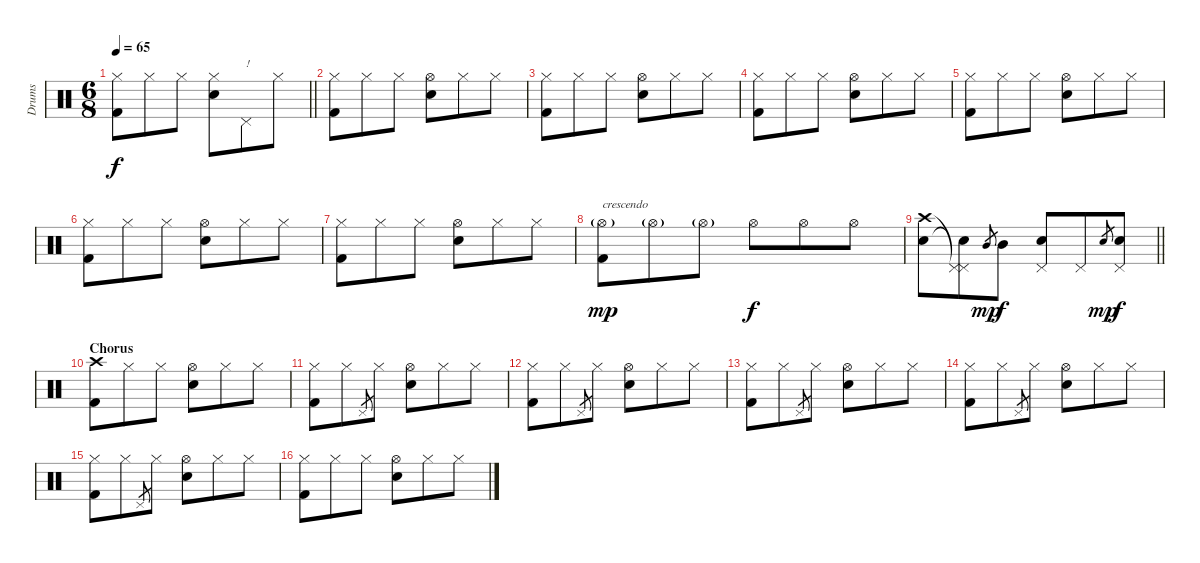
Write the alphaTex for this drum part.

\track ("Drums" "Drums") {instrument percussion}
\staff {score}
\articulation defaults
\ts (6 8)
\tempo 65
\clef neutral
\barLineRight lightlight
\ks c
("Hi-Hat (closed)" "Kick (hit) 2").8{dy f} "Hi-Hat (closed)".8 "Hi-Hat (closed)".8 ("Hi-Hat (closed)" "Snare (hit) 2").8 "Pedal Hi-Hat (hit)".8{txt "!"} "Hi-Hat (closed)".8 |
\section ("" "")
("Hi-Hat (closed)" "Kick (hit) 2").8 "Hi-Hat (closed)".8 "Hi-Hat (closed)".8 ("Hi-Hat (open)" "Snare (hit) 2").8 "Hi-Hat (closed)".8 "Hi-Hat (closed)".8 |
("Hi-Hat (closed)" "Kick (hit) 2").8 "Hi-Hat (closed)".8 "Hi-Hat (closed)".8 ("Hi-Hat (open)" "Snare (hit) 2").8 "Hi-Hat (closed)".8 "Hi-Hat (closed)".8 |
("Hi-Hat (closed)" "Kick (hit) 2").8 "Hi-Hat (closed)".8 "Hi-Hat (closed)".8 ("Hi-Hat (open)" "Snare (hit) 2").8 "Hi-Hat (closed)".8 "Hi-Hat (closed)".8 |
("Hi-Hat (closed)" "Kick (hit) 2").8 "Hi-Hat (closed)".8 "Hi-Hat (closed)".8 ("Hi-Hat (open)" "Snare (hit) 2").8 "Hi-Hat (closed)".8 "Hi-Hat (closed)".8 |
("Hi-Hat (closed)" "Kick (hit) 2").8 "Hi-Hat (closed)".8 "Hi-Hat (closed)".8 ("Hi-Hat (open)" "Snare (hit) 2").8 "Hi-Hat (closed)".8 "Hi-Hat (closed)".8 |
("Hi-Hat (closed)" "Kick (hit) 2").8 "Hi-Hat (closed)".8 "Hi-Hat (closed)".8 ("Hi-Hat (open)" "Snare (hit) 2").8 "Hi-Hat (closed)".8 "Hi-Hat (closed)".8 |
("Hi-Hat (open)"{g} "Kick (hit) 2").8{txt "crescendo" dy mp} "Hi-Hat (open)"{g}.8 "Hi-Hat (open)"{g}.8 "Hi-Hat (open)".8{dy f} "Hi-Hat (open)".8 "Hi-Hat (open)".8 |
\barLineRight lightlight
("Crash high (hit)" "Snare (hit) 2").8 ("Pedal Hi-Hat (hit)"{t} "Snare (hit)"{t} "Pedal Hi-Hat (hit)").8 "Mid Tom (hit)".8{gr dy mp} "Mid Tom (hit)".8{dy f} ("Snare (hit) 2" "Pedal Hi-Hat (hit)").8 "Pedal Hi-Hat (hit)".8 "Snare (hit) 2".8{gr dy mp} ("Snare (hit) 2" "Pedal Hi-Hat (hit)").8{dy f} |
\section ("" "Chorus")
("Crash high (hit)" "Kick (hit) 2").8 "Hi-Hat (closed)".8 "Hi-Hat (closed)".8 ("Hi-Hat (open)" "Snare (hit) 2").8 "Hi-Hat (closed)".8 "Hi-Hat (closed)".8 |
("Hi-Hat (closed)" "Kick (hit) 2").8 "Hi-Hat (closed)".8 "Pedal Hi-Hat (hit)".8{gr} "Hi-Hat (closed)".8 ("Hi-Hat (open)" "Snare (hit) 2").8 "Hi-Hat (closed)".8 "Hi-Hat (closed)".8 |
("Hi-Hat (closed)" "Kick (hit) 2").8 "Hi-Hat (closed)".8 "Pedal Hi-Hat (hit)".8{gr} "Hi-Hat (closed)".8 ("Hi-Hat (open)" "Snare (hit) 2").8 "Hi-Hat (closed)".8 "Hi-Hat (closed)".8 |
("Hi-Hat (closed)" "Kick (hit) 2").8 "Hi-Hat (closed)".8 "Pedal Hi-Hat (hit)".8{gr} "Hi-Hat (closed)".8 ("Hi-Hat (open)" "Snare (hit) 2").8 "Hi-Hat (closed)".8 "Hi-Hat (closed)".8 |
("Hi-Hat (closed)" "Kick (hit) 2").8 "Hi-Hat (closed)".8 "Pedal Hi-Hat (hit)".8{gr} "Hi-Hat (closed)".8 ("Hi-Hat (open)" "Snare (hit) 2").8 "Hi-Hat (closed)".8 "Hi-Hat (closed)".8 |
("Hi-Hat (closed)" "Kick (hit) 2").8 "Hi-Hat (closed)".8 "Pedal Hi-Hat (hit)".8{gr} "Hi-Hat (closed)".8 ("Hi-Hat (open)" "Snare (hit) 2").8 "Hi-Hat (closed)".8 "Hi-Hat (closed)".8 |
("Hi-Hat (closed)" "Kick (hit) 2").8 "Hi-Hat (closed)".8 "Hi-Hat (closed)".8 ("Hi-Hat (open)" "Snare (hit) 2").8 "Hi-Hat (closed)".8 "Hi-Hat (closed)".8
